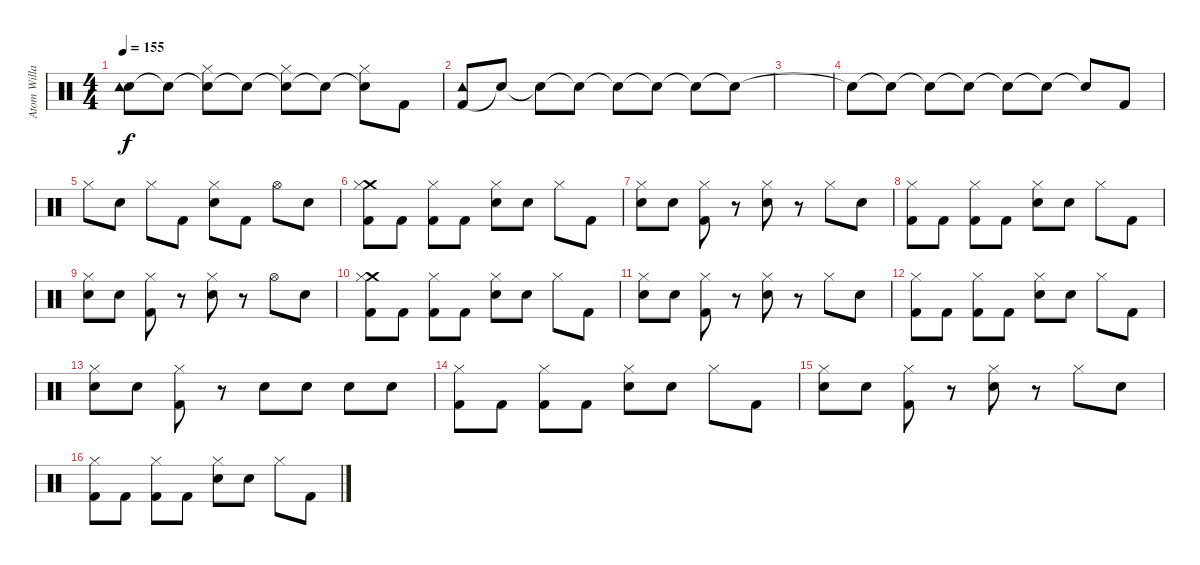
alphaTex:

\track ("Atom Willard Drums" "Atom Willa") {instrument percussion}
\staff {score}
\articulation defaults
\ts (4 4)
\tempo 155
\clef neutral
\ks c
("Hand Clap (hit)" "Tambourine (hit)").8{dy f} "Snare (hit)"{t}.8 ("Snare (hit)"{t} "Hi-Hat (closed)").8 "Snare (hit)"{t}.8 ("Snare (hit)"{t} "Hi-Hat (closed)").8 "Snare (hit)"{t}.8 ("Snare (hit)"{t} "Hi-Hat (closed)").8 "Kick (hit) 2".8 |
("Kick (hit) 2" "Tambourine (hit)").8 "Snare (hit)"{t}.8 "Snare (hit)"{t}.8 "Snare (hit)"{t}.8 "Snare (hit)"{t}.8 "Snare (hit)"{t}.8 "Snare (hit)"{t}.8 "Snare (hit)"{t}.8 |
|
"Snare (hit)"{t}.8 "Snare (hit)"{t}.8 "Snare (hit)"{t}.8 "Snare (hit)"{t}.8 "Snare (hit)"{t}.8 "Snare (hit)"{t}.8 "Snare (hit)"{t}.8 "Kick (hit) 2".8 |
"Hi-Hat (closed)".8 "Electric Snare (hit)".8 "Hi-Hat (closed)".8 "Kick (hit) 2".8 ("Electric Snare (hit)" "Hi-Hat (closed)").8 "Kick (hit) 2".8 "Hi-Hat (open)".8 "Snare (hit)".8 |
("Crash medium (hit)" "Kick (hit) 2" "Hi-Hat (closed)").8 "Kick (hit) 2".8 ("Kick (hit) 2" "Hi-Hat (closed)").8 "Kick (hit) 2".8 ("Electric Snare (hit)" "Hi-Hat (closed)").8 "Snare (hit)".8 "Hi-Hat (closed)".8 "Kick (hit) 2".8 |
("Snare (hit)" "Hi-Hat (closed)").8 "Electric Snare (hit)".8 ("Kick (hit) 2" "Hi-Hat (closed)").8 r.8 ("Electric Snare (hit)" "Hi-Hat (closed)").8 r.8 "Hi-Hat (closed)".8 "Snare (hit)".8 |
("Kick (hit) 2" "Hi-Hat (closed)").8 "Kick (hit) 2".8 ("Kick (hit) 2" "Hi-Hat (closed)").8 "Kick (hit) 2".8 ("Electric Snare (hit)" "Hi-Hat (closed)").8 "Snare (hit)".8 "Hi-Hat (closed)".8 "Kick (hit) 2".8 |
("Snare (hit)" "Hi-Hat (closed)").8 "Electric Snare (hit)".8 ("Kick (hit) 2" "Hi-Hat (closed)").8 r.8 ("Electric Snare (hit)" "Hi-Hat (closed)").8 r.8 "Hi-Hat (open)".8 "Snare (hit)".8 |
("Crash medium (hit)" "Kick (hit) 2" "Hi-Hat (closed)").8 "Kick (hit) 2".8 ("Kick (hit) 2" "Hi-Hat (closed)").8 "Kick (hit) 2".8 ("Electric Snare (hit)" "Hi-Hat (closed)").8 "Snare (hit)".8 "Hi-Hat (closed)".8 "Kick (hit) 2".8 |
("Snare (hit)" "Hi-Hat (closed)").8 "Electric Snare (hit)".8 ("Kick (hit) 2" "Hi-Hat (closed)").8 r.8 ("Electric Snare (hit)" "Hi-Hat (closed)").8 r.8 "Hi-Hat (closed)".8 "Snare (hit)".8 |
("Kick (hit) 2" "Hi-Hat (closed)").8 "Kick (hit) 2".8 ("Kick (hit) 2" "Hi-Hat (closed)").8 "Kick (hit) 2".8 ("Electric Snare (hit)" "Hi-Hat (closed)").8 "Snare (hit)".8 "Hi-Hat (closed)".8 "Kick (hit) 2".8 |
("Snare (hit)" "Hi-Hat (closed)").8 "Electric Snare (hit)".8 ("Kick (hit) 2" "Hi-Hat (closed)").8 r.8 "Electric Snare (hit)".8 "Electric Snare (hit)".8 "Electric Snare (hit)".8 "Snare (hit)".8 |
("Kick (hit) 2" "Hi-Hat (closed)").8 "Kick (hit) 2".8 ("Kick (hit) 2" "Hi-Hat (closed)").8 "Kick (hit) 2".8 ("Electric Snare (hit)" "Hi-Hat (closed)").8 "Snare (hit)".8 "Hi-Hat (closed)".8 "Kick (hit) 2".8 |
("Snare (hit)" "Hi-Hat (closed)").8 "Electric Snare (hit)".8 ("Kick (hit) 2" "Hi-Hat (closed)").8 r.8 ("Electric Snare (hit)" "Hi-Hat (closed)").8 r.8 "Hi-Hat (closed)".8 "Snare (hit)".8 |
("Kick (hit) 2" "Hi-Hat (closed)").8 "Kick (hit) 2".8 ("Kick (hit) 2" "Hi-Hat (closed)").8 "Kick (hit) 2".8 ("Electric Snare (hit)" "Hi-Hat (closed)").8 "Snare (hit)".8 "Hi-Hat (closed)".8 "Kick (hit) 2".8
